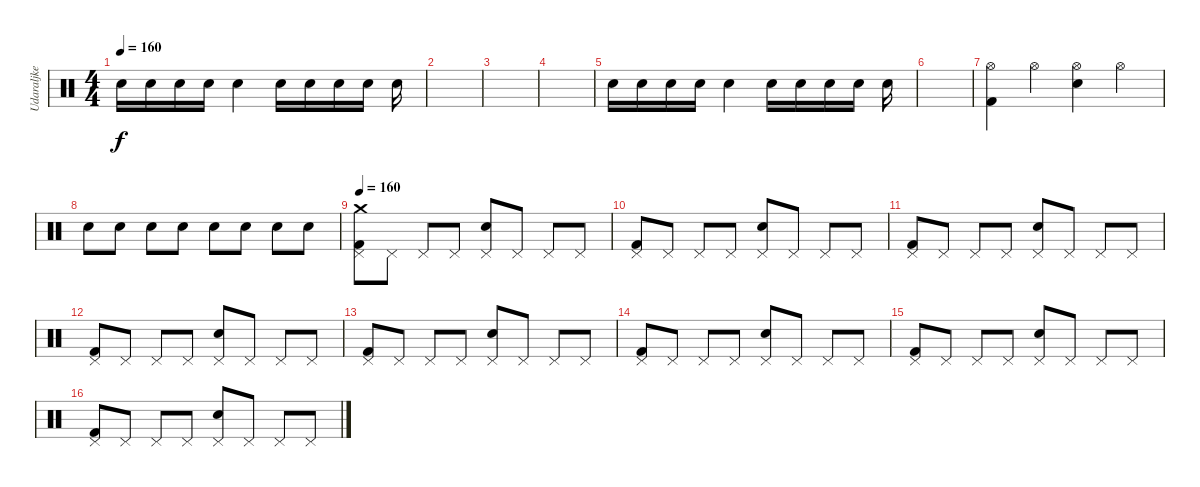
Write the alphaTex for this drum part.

\track ("Udaraljke" "Udaraljke") {instrument percussion}
\staff {score}
\articulation defaults
\ts (4 4)
\tempo 160
\clef neutral
\ks c "Snare (hit) 2".16{dy f} "Snare (hit) 2".16 "Snare (hit) 2".16 "Snare (hit) 2".16 "Snare (hit) 2".4 "Snare (hit) 2".16 "Snare (hit) 2".16 "Snare (hit) 2".16 "Snare (hit) 2".16 "Snare (hit) 2".16
|
|
|
|
"Snare (hit) 2".16 "Snare (hit) 2".16 "Snare (hit) 2".16 "Snare (hit) 2".16 "Snare (hit) 2".4 "Snare (hit) 2".16 "Snare (hit) 2".16 "Snare (hit) 2".16 "Snare (hit) 2".16 "Snare (hit) 2".16 |
|
("Hi-Hat (open)" "Kick (hit) 2").4 "Hi-Hat (open)".4 ("Hi-Hat (open)" "Snare (hit) 2").4 "Hi-Hat (open)".4 |
"Snare (hit) 2".8 "Snare (hit) 2".8 "Snare (hit) 2".8 "Snare (hit) 2".8 "Snare (hit) 2".8 "Snare (hit) 2".8 "Snare (hit) 2".8 "Snare (hit) 2".8 |
\tempo 160
("Pedal Hi-Hat (hit)" "Crash medium (hit)" "Kick (hit) 2").8 "Pedal Hi-Hat (hit)".8 "Pedal Hi-Hat (hit)".8 "Pedal Hi-Hat (hit)".8 ("Pedal Hi-Hat (hit)" "Snare (hit) 2").8 "Pedal Hi-Hat (hit)".8 "Pedal Hi-Hat (hit)".8 "Pedal Hi-Hat (hit)".8 |
("Pedal Hi-Hat (hit)" "Kick (hit) 2").8 "Pedal Hi-Hat (hit)".8 "Pedal Hi-Hat (hit)".8 "Pedal Hi-Hat (hit)".8 ("Pedal Hi-Hat (hit)" "Snare (hit) 2").8 "Pedal Hi-Hat (hit)".8 "Pedal Hi-Hat (hit)".8 "Pedal Hi-Hat (hit)".8 |
("Pedal Hi-Hat (hit)" "Kick (hit) 2").8 "Pedal Hi-Hat (hit)".8 "Pedal Hi-Hat (hit)".8 "Pedal Hi-Hat (hit)".8 ("Pedal Hi-Hat (hit)" "Snare (hit) 2").8 "Pedal Hi-Hat (hit)".8 "Pedal Hi-Hat (hit)".8 "Pedal Hi-Hat (hit)".8 |
("Pedal Hi-Hat (hit)" "Kick (hit) 2").8 "Pedal Hi-Hat (hit)".8 "Pedal Hi-Hat (hit)".8 "Pedal Hi-Hat (hit)".8 ("Pedal Hi-Hat (hit)" "Snare (hit) 2").8 "Pedal Hi-Hat (hit)".8 "Pedal Hi-Hat (hit)".8 "Pedal Hi-Hat (hit)".8 |
("Pedal Hi-Hat (hit)" "Kick (hit) 2").8 "Pedal Hi-Hat (hit)".8 "Pedal Hi-Hat (hit)".8 "Pedal Hi-Hat (hit)".8 ("Pedal Hi-Hat (hit)" "Snare (hit) 2").8 "Pedal Hi-Hat (hit)".8 "Pedal Hi-Hat (hit)".8 "Pedal Hi-Hat (hit)".8 |
("Pedal Hi-Hat (hit)" "Kick (hit) 2").8 "Pedal Hi-Hat (hit)".8 "Pedal Hi-Hat (hit)".8 "Pedal Hi-Hat (hit)".8 ("Pedal Hi-Hat (hit)" "Snare (hit) 2").8 "Pedal Hi-Hat (hit)".8 "Pedal Hi-Hat (hit)".8 "Pedal Hi-Hat (hit)".8 |
("Pedal Hi-Hat (hit)" "Kick (hit) 2").8 "Pedal Hi-Hat (hit)".8 "Pedal Hi-Hat (hit)".8 "Pedal Hi-Hat (hit)".8 ("Pedal Hi-Hat (hit)" "Snare (hit) 2").8 "Pedal Hi-Hat (hit)".8 "Pedal Hi-Hat (hit)".8 "Pedal Hi-Hat (hit)".8 |
("Pedal Hi-Hat (hit)" "Kick (hit) 2").8 "Pedal Hi-Hat (hit)".8 "Pedal Hi-Hat (hit)".8 "Pedal Hi-Hat (hit)".8 ("Pedal Hi-Hat (hit)" "Snare (hit) 2").8 "Pedal Hi-Hat (hit)".8 "Pedal Hi-Hat (hit)".8 "Pedal Hi-Hat (hit)".8
